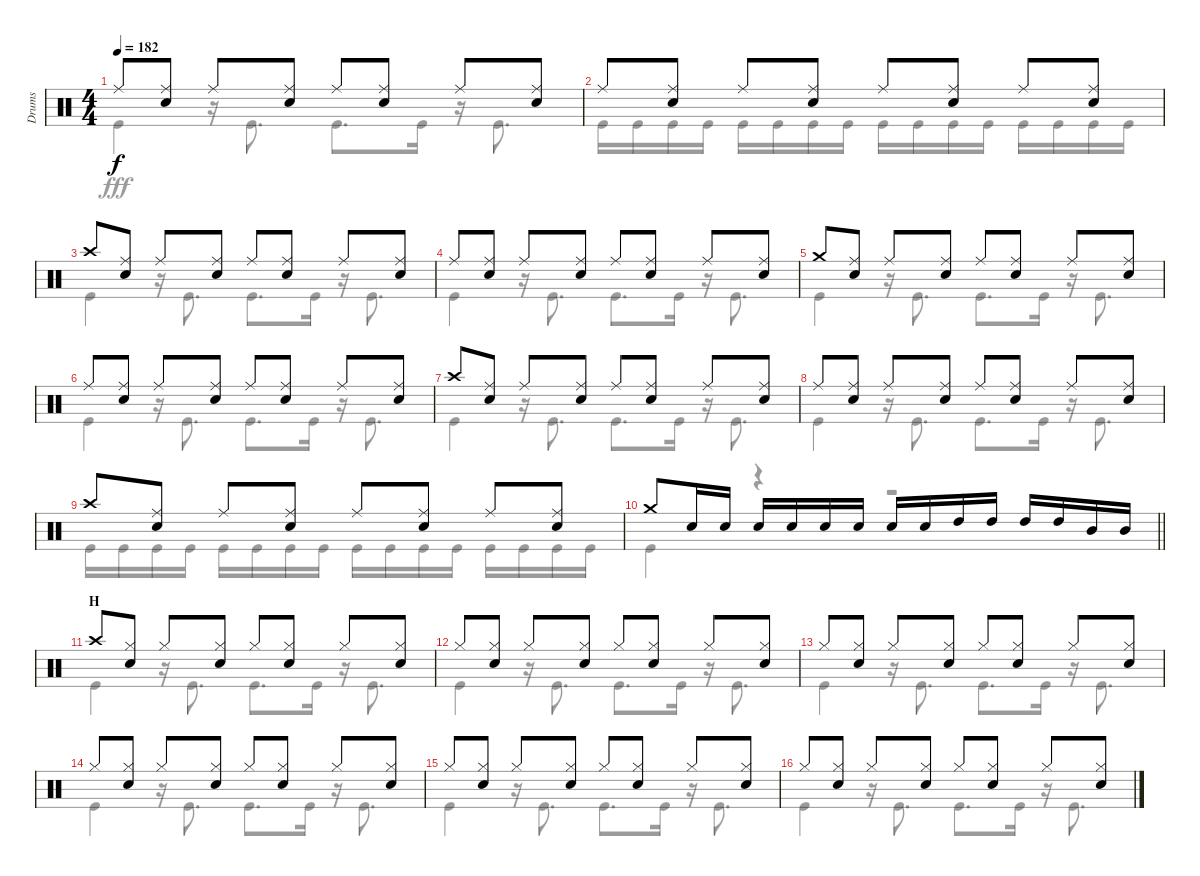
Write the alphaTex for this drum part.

\track ("Drums" "Drums") {instrument percussion}
\staff {score}
\articulation defaults
\voice
\ts (4 4)
\tempo 182
\clef neutral
\ks c "Ride (middle)".8{dy f}
("Ride (middle)" "Snare (hit) 2").8 "Ride (middle)".8 ("Ride (middle)" "Snare (hit) 2").8 "Ride (middle)".8 ("Ride (middle)" "Snare (hit) 2").8 "Ride (middle)".8 ("Ride (middle)" "Snare (hit) 2").8 |
"Ride (middle)".8 ("Ride (middle)" "Snare (hit) 2").8 "Ride (middle)".8 ("Ride (middle)" "Snare (hit) 2").8 "Ride (middle)".8 ("Ride (middle)" "Snare (hit) 2").8 "Ride (middle)".8 ("Ride (middle)" "Snare (hit) 2").8 |
"Crash high (hit)".8 ("Ride (middle)" "Snare (hit) 2").8 "Ride (middle)".8 ("Ride (middle)" "Snare (hit) 2").8 "Ride (middle)".8 ("Ride (middle)" "Snare (hit) 2").8 "Ride (middle)".8 ("Ride (middle)" "Snare (hit) 2").8 |
"Ride (middle)".8 ("Ride (middle)" "Snare (hit) 2").8 "Ride (middle)".8 ("Ride (middle)" "Snare (hit) 2").8 "Ride (middle)".8 ("Ride (middle)" "Snare (hit) 2").8 "Ride (middle)".8 ("Ride (middle)" "Snare (hit) 2").8 |
"Crash medium (hit)".8 ("Ride (middle)" "Snare (hit) 2").8 "Ride (middle)".8 ("Ride (middle)" "Snare (hit) 2").8 "Ride (middle)".8 ("Ride (middle)" "Snare (hit) 2").8 "Ride (middle)".8 ("Ride (middle)" "Snare (hit) 2").8 |
"Ride (middle)".8 ("Ride (middle)" "Snare (hit) 2").8 "Ride (middle)".8 ("Ride (middle)" "Snare (hit) 2").8 "Ride (middle)".8 ("Ride (middle)" "Snare (hit) 2").8 "Ride (middle)".8 ("Ride (middle)" "Snare (hit) 2").8 |
"Crash high (hit)".8 ("Ride (middle)" "Snare (hit) 2").8 "Ride (middle)".8 ("Ride (middle)" "Snare (hit) 2").8 "Ride (middle)".8 ("Ride (middle)" "Snare (hit) 2").8 "Ride (middle)".8 ("Ride (middle)" "Snare (hit) 2").8 |
"Ride (middle)".8 ("Ride (middle)" "Snare (hit) 2").8 "Ride (middle)".8 ("Ride (middle)" "Snare (hit) 2").8 "Ride (middle)".8 ("Ride (middle)" "Snare (hit) 2").8 "Ride (middle)".8 ("Ride (middle)" "Snare (hit) 2").8 |
"Crash high (hit)".8 ("Ride (middle)" "Snare (hit) 2").8 "Ride (middle)".8 ("Ride (middle)" "Snare (hit) 2").8 "Ride (middle)".8 ("Ride (middle)" "Snare (hit) 2").8 "Ride (middle)".8 ("Ride (middle)" "Snare (hit) 2").8 |
\barLineRight lightlight "Crash medium (hit)".8 "Snare (hit) 2".16 "Snare (hit) 2".16 "Snare (hit) 2".16 "Snare (hit) 2".16 "Snare (hit) 2".16 "Snare (hit) 2".16 "Snare (hit) 2".16 "Snare (hit) 2".16 "High Tom (hit)".16 "High Tom (hit)".16 "High Tom (hit)".16 "High Tom (hit)".16 "Mid Tom (hit)".16 "Mid Tom (hit)".16
|
\section ("" "H")
"Crash high (hit)".8 ("Hi-Hat (closed)" "Snare (hit) 2").8 "Hi-Hat (closed)".8 ("Hi-Hat (closed)" "Snare (hit) 2").8 "Hi-Hat (closed)".8 ("Hi-Hat (closed)" "Snare (hit) 2").8 "Hi-Hat (closed)".8 ("Hi-Hat (closed)" "Snare (hit) 2").8 |
"Hi-Hat (closed)".8 ("Hi-Hat (closed)" "Snare (hit) 2").8 "Hi-Hat (closed)".8 ("Hi-Hat (closed)" "Snare (hit) 2").8 "Hi-Hat (closed)".8 ("Hi-Hat (closed)" "Snare (hit) 2").8 "Hi-Hat (closed)".8 ("Hi-Hat (closed)" "Snare (hit) 2").8 |
"Hi-Hat (closed)".8 ("Hi-Hat (closed)" "Snare (hit) 2").8 "Hi-Hat (closed)".8 ("Hi-Hat (closed)" "Snare (hit) 2").8 "Hi-Hat (closed)".8 ("Hi-Hat (closed)" "Snare (hit) 2").8 "Hi-Hat (closed)".8 ("Hi-Hat (closed)" "Snare (hit) 2").8 |
"Hi-Hat (closed)".8 ("Hi-Hat (closed)" "Snare (hit) 2").8 "Hi-Hat (closed)".8 ("Hi-Hat (closed)" "Snare (hit) 2").8 "Hi-Hat (closed)".8 ("Hi-Hat (closed)" "Snare (hit) 2").8 "Hi-Hat (closed)".8 ("Hi-Hat (closed)" "Snare (hit) 2").8 |
"Hi-Hat (closed)".8 ("Hi-Hat (closed)" "Snare (hit) 2").8 "Hi-Hat (closed)".8 ("Hi-Hat (closed)" "Snare (hit) 2").8 "Hi-Hat (closed)".8 ("Hi-Hat (closed)" "Snare (hit) 2").8 "Hi-Hat (closed)".8 ("Hi-Hat (closed)" "Snare (hit) 2").8 |
"Hi-Hat (closed)".8 ("Hi-Hat (closed)" "Snare (hit) 2").8 "Hi-Hat (closed)".8 ("Hi-Hat (closed)" "Snare (hit) 2").8 "Hi-Hat (closed)".8 ("Hi-Hat (closed)" "Snare (hit) 2").8 "Hi-Hat (closed)".8 ("Hi-Hat (closed)" "Snare (hit) 2").8
\voice
\clef neutral
\ottava regular
\simile none
\ks c "Kick (hit)".4{dy fff}
r.16 "Kick (hit)".8{d} "Kick (hit)".8{d} "Kick (hit)".16 r.16 "Kick (hit)".8{d} |
"Kick (hit)".16 "Kick (hit)".16 "Kick (hit)".16 "Kick (hit)".16 "Kick (hit)".16 "Kick (hit)".16 "Kick (hit)".16 "Kick (hit)".16 "Kick (hit)".16 "Kick (hit)".16 "Kick (hit)".16 "Kick (hit)".16 "Kick (hit)".16 "Kick (hit)".16 "Kick (hit)".16 "Kick (hit)".16 |
"Kick (hit)".4 r.16 "Kick (hit)".8{d} "Kick (hit)".8{d} "Kick (hit)".16 r.16 "Kick (hit)".8{d} |
"Kick (hit)".4 r.16 "Kick (hit)".8{d} "Kick (hit)".8{d} "Kick (hit)".16 r.16 "Kick (hit)".8{d} |
"Kick (hit)".4 r.16 "Kick (hit)".8{d} "Kick (hit)".8{d} "Kick (hit)".16 r.16 "Kick (hit)".8{d} |
"Kick (hit)".4 r.16 "Kick (hit)".8{d} "Kick (hit)".8{d} "Kick (hit)".16 r.16 "Kick (hit)".8{d} |
"Kick (hit)".4 r.16 "Kick (hit)".8{d} "Kick (hit)".8{d} "Kick (hit)".16 r.16 "Kick (hit)".8{d} |
"Kick (hit)".4 r.16 "Kick (hit)".8{d} "Kick (hit)".8{d} "Kick (hit)".16 r.16 "Kick (hit)".8{d} |
"Kick (hit)".16 "Kick (hit)".16 "Kick (hit)".16 "Kick (hit)".16 "Kick (hit)".16 "Kick (hit)".16 "Kick (hit)".16 "Kick (hit)".16 "Kick (hit)".16 "Kick (hit)".16 "Kick (hit)".16 "Kick (hit)".16 "Kick (hit)".16 "Kick (hit)".16 "Kick (hit)".16 "Kick (hit)".16 |
\barLineRight lightlight "Kick (hit)".4
r.4 r.2 |
"Kick (hit)".4 r.16 "Kick (hit)".8{d} "Kick (hit)".8{d} "Kick (hit)".16 r.16 "Kick (hit)".8{d} |
"Kick (hit)".4 r.16 "Kick (hit)".8{d} "Kick (hit)".8{d} "Kick (hit)".16 r.16 "Kick (hit)".8{d} |
"Kick (hit)".4 r.16 "Kick (hit)".8{d} "Kick (hit)".8{d} "Kick (hit)".16 r.16 "Kick (hit)".8{d} |
"Kick (hit)".4 r.16 "Kick (hit)".8{d} "Kick (hit)".8{d} "Kick (hit)".16 r.16 "Kick (hit)".8{d} |
"Kick (hit)".4 r.16 "Kick (hit)".8{d} "Kick (hit)".8{d} "Kick (hit)".16 r.16 "Kick (hit)".8{d} |
"Kick (hit)".4 r.16 "Kick (hit)".8{d} "Kick (hit)".8{d} "Kick (hit)".16 r.16 "Kick (hit)".8{d}
